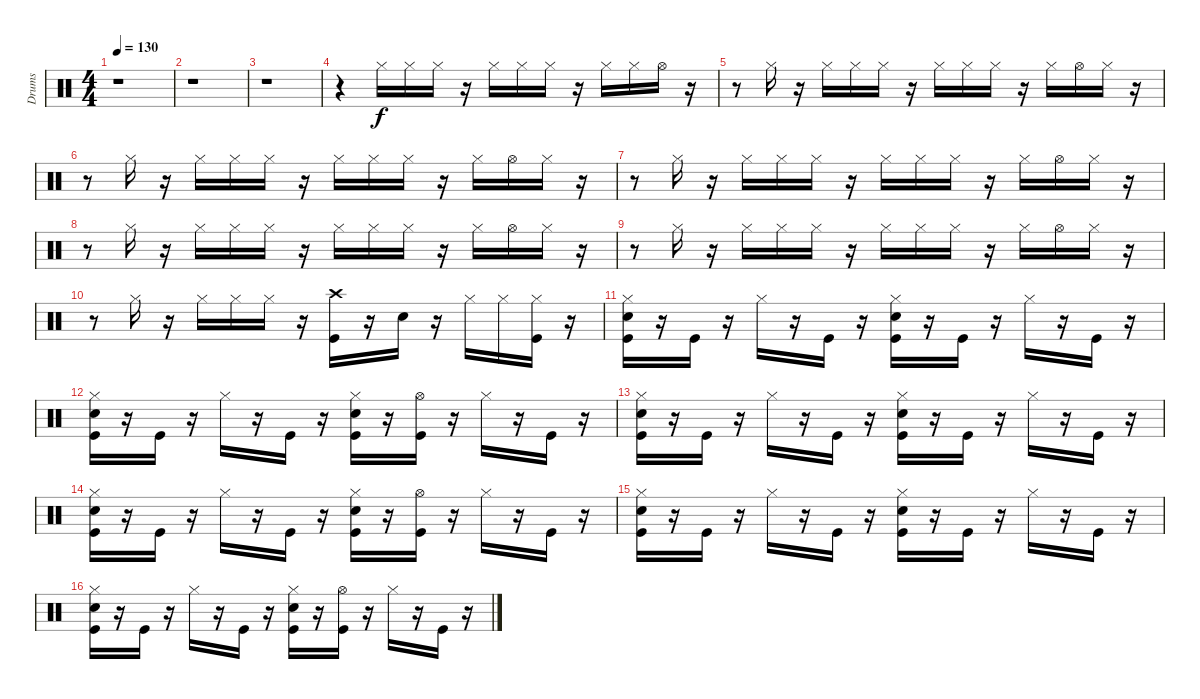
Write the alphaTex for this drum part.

\track ("Drums" "Drums") {instrument percussion}
\staff {score}
\articulation defaults
\ts (4 4)
\tempo 130
\clef neutral
\ks c
r.1{dy f} |
r.1 |
r.1 |
r.4 "Hi-Hat (closed)".16 "Hi-Hat (closed)".16 "Hi-Hat (closed)".16 r.16 "Hi-Hat (closed)".16 "Hi-Hat (closed)".16 "Hi-Hat (closed)".16 r.16 "Hi-Hat (closed)".16 "Hi-Hat (closed)".16 "Hi-Hat (open)".16 r.16 |
r.8 "Hi-Hat (closed)".16 r.16 "Hi-Hat (closed)".16 "Hi-Hat (closed)".16 "Hi-Hat (closed)".16 r.16 "Hi-Hat (closed)".16 "Hi-Hat (closed)".16 "Hi-Hat (closed)".16 r.16 "Hi-Hat (closed)".16 "Hi-Hat (open)".16 "Hi-Hat (closed)".16 r.16 |
r.8 "Hi-Hat (closed)".16 r.16 "Hi-Hat (closed)".16 "Hi-Hat (closed)".16 "Hi-Hat (closed)".16 r.16 "Hi-Hat (closed)".16 "Hi-Hat (closed)".16 "Hi-Hat (closed)".16 r.16 "Hi-Hat (closed)".16 "Hi-Hat (open)".16 "Hi-Hat (closed)".16 r.16 |
r.8 "Hi-Hat (closed)".16 r.16 "Hi-Hat (closed)".16 "Hi-Hat (closed)".16 "Hi-Hat (closed)".16 r.16 "Hi-Hat (closed)".16 "Hi-Hat (closed)".16 "Hi-Hat (closed)".16 r.16 "Hi-Hat (closed)".16 "Hi-Hat (open)".16 "Hi-Hat (closed)".16 r.16 |
r.8 "Hi-Hat (closed)".16 r.16 "Hi-Hat (closed)".16 "Hi-Hat (closed)".16 "Hi-Hat (closed)".16 r.16 "Hi-Hat (closed)".16 "Hi-Hat (closed)".16 "Hi-Hat (closed)".16 r.16 "Hi-Hat (closed)".16 "Hi-Hat (open)".16 "Hi-Hat (closed)".16 r.16 |
r.8 "Hi-Hat (closed)".16 r.16 "Hi-Hat (closed)".16 "Hi-Hat (closed)".16 "Hi-Hat (closed)".16 r.16 "Hi-Hat (closed)".16 "Hi-Hat (closed)".16 "Hi-Hat (closed)".16 r.16 "Hi-Hat (closed)".16 "Hi-Hat (open)".16 "Hi-Hat (closed)".16 r.16 |
r.8 "Hi-Hat (closed)".16 r.16 "Hi-Hat (closed)".16 "Hi-Hat (closed)".16 "Hi-Hat (closed)".16 r.16 ("Kick (hit)" "Crash high (hit)").16 r.16 "Snare (hit) 2".16 r.16 "Hi-Hat (closed)".16 "Hi-Hat (closed)".16 ("Kick (hit)" "Hi-Hat (closed)").16 r.16 |
("Hi-Hat (closed)" "Snare (hit) 2" "Kick (hit)").16 r.16 "Kick (hit)".16 r.16 "Hi-Hat (closed)".16 r.16 "Kick (hit)".16 r.16 ("Hi-Hat (closed)" "Snare (hit) 2" "Kick (hit)").16 r.16 "Kick (hit)".16 r.16 "Hi-Hat (closed)".16 r.16 "Kick (hit)".16 r.16 |
("Hi-Hat (closed)" "Snare (hit) 2" "Kick (hit)").16 r.16 "Kick (hit)".16 r.16 "Hi-Hat (closed)".16 r.16 "Kick (hit)".16 r.16 ("Hi-Hat (closed)" "Snare (hit) 2" "Kick (hit)").16 r.16 ("Hi-Hat (open)" "Kick (hit)").16 r.16 "Hi-Hat (closed)".16 r.16 "Kick (hit)".16 r.16 |
("Hi-Hat (closed)" "Snare (hit) 2" "Kick (hit)").16 r.16 "Kick (hit)".16 r.16 "Hi-Hat (closed)".16 r.16 "Kick (hit)".16 r.16 ("Hi-Hat (closed)" "Snare (hit) 2" "Kick (hit)").16 r.16 "Kick (hit)".16 r.16 "Hi-Hat (closed)".16 r.16 "Kick (hit)".16 r.16 |
("Hi-Hat (closed)" "Snare (hit) 2" "Kick (hit)").16 r.16 "Kick (hit)".16 r.16 "Hi-Hat (closed)".16 r.16 "Kick (hit)".16 r.16 ("Hi-Hat (closed)" "Snare (hit) 2" "Kick (hit)").16 r.16 ("Hi-Hat (open)" "Kick (hit)").16 r.16 "Hi-Hat (closed)".16 r.16 "Kick (hit)".16 r.16 |
("Hi-Hat (closed)" "Snare (hit) 2" "Kick (hit)").16 r.16 "Kick (hit)".16 r.16 "Hi-Hat (closed)".16 r.16 "Kick (hit)".16 r.16 ("Hi-Hat (closed)" "Snare (hit) 2" "Kick (hit)").16 r.16 "Kick (hit)".16 r.16 "Hi-Hat (closed)".16 r.16 "Kick (hit)".16 r.16 |
("Hi-Hat (closed)" "Snare (hit) 2" "Kick (hit)").16 r.16 "Kick (hit)".16 r.16 "Hi-Hat (closed)".16 r.16 "Kick (hit)".16 r.16 ("Hi-Hat (closed)" "Snare (hit) 2" "Kick (hit)").16 r.16 ("Hi-Hat (open)" "Kick (hit)").16 r.16 "Hi-Hat (closed)".16 r.16 "Kick (hit)".16 r.16
